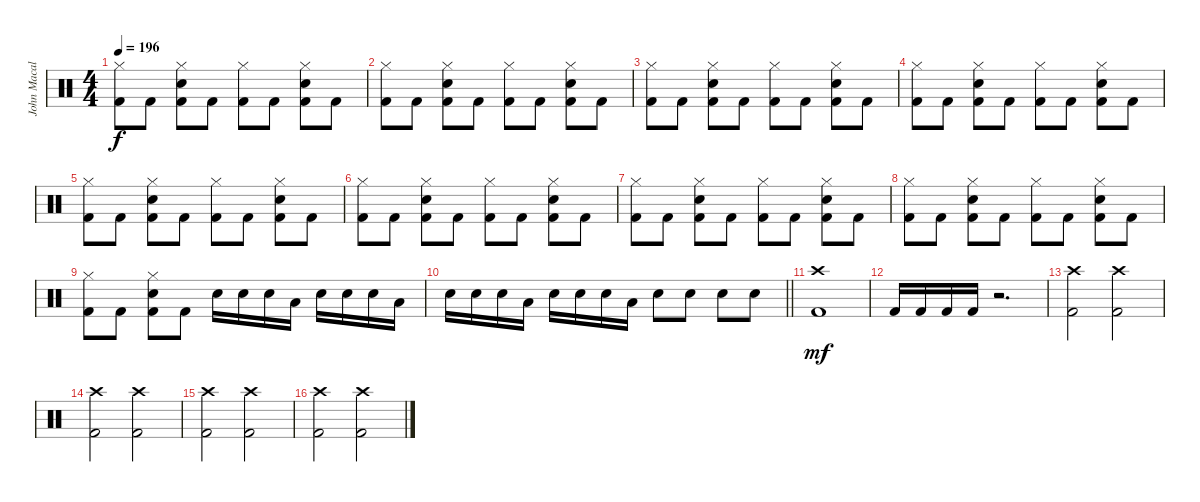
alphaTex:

\track ("John Macaluso" "John Macal") {instrument percussion}
\staff {score}
\articulation defaults
\ts (4 4)
\tempo 196
\clef neutral
\ks c
("Hi-Hat (closed)" "Kick (hit) 2").8{dy f} "Kick (hit) 2".8 ("Electric Snare (hit)" "Hi-Hat (closed)" "Kick (hit) 2").8 "Kick (hit) 2".8 ("Hi-Hat (closed)" "Kick (hit) 2").8 "Kick (hit) 2".8 ("Electric Snare (hit)" "Hi-Hat (closed)" "Kick (hit) 2").8 "Kick (hit) 2".8 |
("Hi-Hat (closed)" "Kick (hit) 2").8 "Kick (hit) 2".8 ("Electric Snare (hit)" "Hi-Hat (closed)" "Kick (hit) 2").8 "Kick (hit) 2".8 ("Hi-Hat (closed)" "Kick (hit) 2").8 "Kick (hit) 2".8 ("Electric Snare (hit)" "Hi-Hat (closed)" "Kick (hit) 2").8 "Kick (hit) 2".8 |
("Hi-Hat (closed)" "Kick (hit) 2").8 "Kick (hit) 2".8 ("Electric Snare (hit)" "Hi-Hat (closed)" "Kick (hit) 2").8 "Kick (hit) 2".8 ("Hi-Hat (closed)" "Kick (hit) 2").8 "Kick (hit) 2".8 ("Electric Snare (hit)" "Hi-Hat (closed)" "Kick (hit) 2").8 "Kick (hit) 2".8 |
("Hi-Hat (closed)" "Kick (hit) 2").8 "Kick (hit) 2".8 ("Electric Snare (hit)" "Hi-Hat (closed)" "Kick (hit) 2").8 "Kick (hit) 2".8 ("Hi-Hat (closed)" "Kick (hit) 2").8 "Kick (hit) 2".8 ("Electric Snare (hit)" "Hi-Hat (closed)" "Kick (hit) 2").8 "Kick (hit) 2".8 |
("Hi-Hat (closed)" "Kick (hit) 2").8 "Kick (hit) 2".8 ("Electric Snare (hit)" "Hi-Hat (closed)" "Kick (hit) 2").8 "Kick (hit) 2".8 ("Hi-Hat (closed)" "Kick (hit) 2").8 "Kick (hit) 2".8 ("Electric Snare (hit)" "Hi-Hat (closed)" "Kick (hit) 2").8 "Kick (hit) 2".8 |
("Hi-Hat (closed)" "Kick (hit) 2").8 "Kick (hit) 2".8 ("Electric Snare (hit)" "Hi-Hat (closed)" "Kick (hit) 2").8 "Kick (hit) 2".8 ("Hi-Hat (closed)" "Kick (hit) 2").8 "Kick (hit) 2".8 ("Electric Snare (hit)" "Hi-Hat (closed)" "Kick (hit) 2").8 "Kick (hit) 2".8 |
("Hi-Hat (closed)" "Kick (hit) 2").8 "Kick (hit) 2".8 ("Electric Snare (hit)" "Hi-Hat (closed)" "Kick (hit) 2").8 "Kick (hit) 2".8 ("Hi-Hat (closed)" "Kick (hit) 2").8 "Kick (hit) 2".8 ("Electric Snare (hit)" "Hi-Hat (closed)" "Kick (hit) 2").8 "Kick (hit) 2".8 |
("Hi-Hat (closed)" "Kick (hit) 2").8 "Kick (hit) 2".8 ("Electric Snare (hit)" "Hi-Hat (closed)" "Kick (hit) 2").8 "Kick (hit) 2".8 ("Hi-Hat (closed)" "Kick (hit) 2").8 "Kick (hit) 2".8 ("Electric Snare (hit)" "Hi-Hat (closed)" "Kick (hit) 2").8 "Kick (hit) 2".8 |
("Hi-Hat (closed)" "Kick (hit) 2").8 "Kick (hit) 2".8 ("Electric Snare (hit)" "Hi-Hat (closed)" "Kick (hit) 2").8 "Kick (hit) 2".8 "Electric Snare (hit)".16 "Electric Snare (hit)".16 "Electric Snare (hit)".16 "Low Tom (hit)".16 "Electric Snare (hit)".16 "Electric Snare (hit)".16 "Electric Snare (hit)".16 "Low Tom (hit)".16 |
\barLineRight lightlight "Electric Snare (hit)".16 "Electric Snare (hit)".16 "Electric Snare (hit)".16 "Low Tom (hit)".16 "Electric Snare (hit)".16 "Electric Snare (hit)".16 "Electric Snare (hit)".16 "Low Tom (hit)".16 "Electric Snare (hit)".8 "Electric Snare (hit)".8 "Electric Snare (hit)".8 "Electric Snare (hit)".8
|
("Crash high (hit)" "Kick (hit) 2").1{dy mf} |
"Kick (hit) 2".16 "Kick (hit) 2".16 "Kick (hit) 2".16 "Kick (hit) 2".16 r.2{d} |
("Crash high (hit)" "Kick (hit) 2").2 ("Crash high (hit)" "Kick (hit) 2").2 |
("Crash high (hit)" "Kick (hit) 2").2 ("Crash high (hit)" "Kick (hit) 2").2 |
("Crash high (hit)" "Kick (hit) 2").2 ("Crash high (hit)" "Kick (hit) 2").2 |
("Crash high (hit)" "Kick (hit) 2").2 ("Crash high (hit)" "Kick (hit) 2").2
